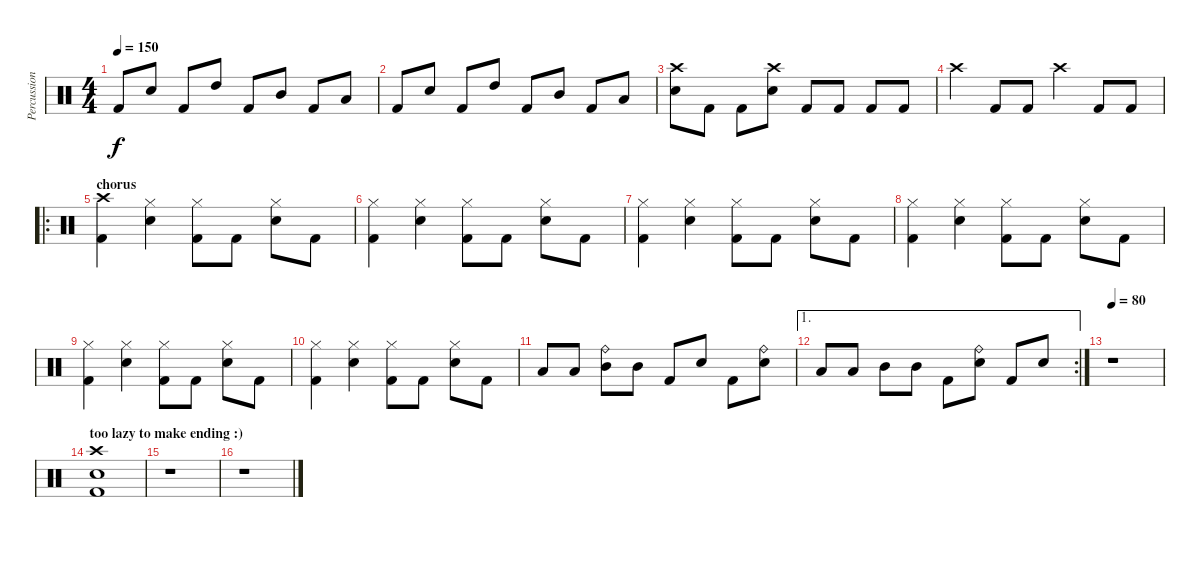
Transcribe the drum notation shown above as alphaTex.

\track ("Percussion" "Percussion") {instrument percussion}
\staff {score}
\articulation defaults
\ts (4 4)
\tempo 150
\clef neutral
\ks c "Kick (hit) 2".8{dy f} "Electric Snare (hit)".8 "Kick (hit) 2".8 "High Tom (hit)".8 "Kick (hit) 2".8 "Mid Tom (hit)".8 "Kick (hit) 2".8 "Low Tom (hit)".8
|
"Kick (hit) 2".8 "Electric Snare (hit)".8 "Kick (hit) 2".8 "High Tom (hit)".8 "Kick (hit) 2".8 "Mid Tom (hit)".8 "Kick (hit) 2".8 "Low Tom (hit)".8 |
("Crash high (hit)" "Electric Snare (hit)").8 "Kick (hit) 2".8 "Kick (hit) 2".8 ("Crash high (hit)" "Electric Snare (hit)").8 "Kick (hit) 2".8 "Kick (hit) 2".8 "Kick (hit) 2".8 "Kick (hit) 2".8 |
"Crash high (hit)".4 "Kick (hit) 2".8 "Kick (hit) 2".8 "Crash high (hit)".4 "Kick (hit) 2".8 "Kick (hit) 2".8 |
\ro
\section ("" "chorus")
("Crash high (hit)" "Kick (hit) 2").4 ("Hi-Hat (closed)" "Electric Snare (hit)").4 ("Hi-Hat (closed)" "Kick (hit) 2").8 "Kick (hit) 2".8 ("Hi-Hat (closed)" "Electric Snare (hit)").8 "Kick (hit) 2".8 |
("Hi-Hat (closed)" "Kick (hit) 2").4 ("Hi-Hat (closed)" "Electric Snare (hit)").4 ("Hi-Hat (closed)" "Kick (hit) 2").8 "Kick (hit) 2".8 ("Hi-Hat (closed)" "Electric Snare (hit)").8 "Kick (hit) 2".8 |
("Hi-Hat (closed)" "Kick (hit) 2").4 ("Hi-Hat (closed)" "Electric Snare (hit)").4 ("Hi-Hat (closed)" "Kick (hit) 2").8 "Kick (hit) 2".8 ("Hi-Hat (closed)" "Electric Snare (hit)").8 "Kick (hit) 2".8 |
("Hi-Hat (closed)" "Kick (hit) 2").4 ("Hi-Hat (closed)" "Electric Snare (hit)").4 ("Hi-Hat (closed)" "Kick (hit) 2").8 "Kick (hit) 2".8 ("Hi-Hat (closed)" "Electric Snare (hit)").8 "Kick (hit) 2".8 |
("Hi-Hat (closed)" "Kick (hit) 2").4 ("Hi-Hat (closed)" "Electric Snare (hit)").4 ("Hi-Hat (closed)" "Kick (hit) 2").8 "Kick (hit) 2".8 ("Hi-Hat (closed)" "Electric Snare (hit)").8 "Kick (hit) 2".8 |
("Hi-Hat (closed)" "Kick (hit) 2").4 ("Hi-Hat (closed)" "Electric Snare (hit)").4 ("Hi-Hat (closed)" "Kick (hit) 2").8 "Kick (hit) 2".8 ("Hi-Hat (closed)" "Electric Snare (hit)").8 "Kick (hit) 2".8 |
"Low Tom (hit)".8 "Low Tom (hit)".8 ("Ride (bell)" "Mid Tom (hit)").8 "Mid Tom (hit)".8 "Kick (hit) 2".8 "Electric Snare (hit)".8 "Kick (hit) 2".8 ("Ride (bell)" "Electric Snare (hit)").8 |
\ae 1
\rc 2 "Low Tom (hit)".8 "Low Tom (hit)".8 "Mid Tom (hit)".8 "Mid Tom (hit)".8 "Kick (hit) 2".8
("Ride (bell)" "Electric Snare (hit)").8 "Kick (hit) 2".8 "Electric Snare (hit)".8 |
\tempo 80
r.1 |
\section ("" "too lazy to make ending :)")
("Crash high (hit)" "Electric Snare (hit)" "Kick (hit) 2").1 |
r.1 |
r.1
